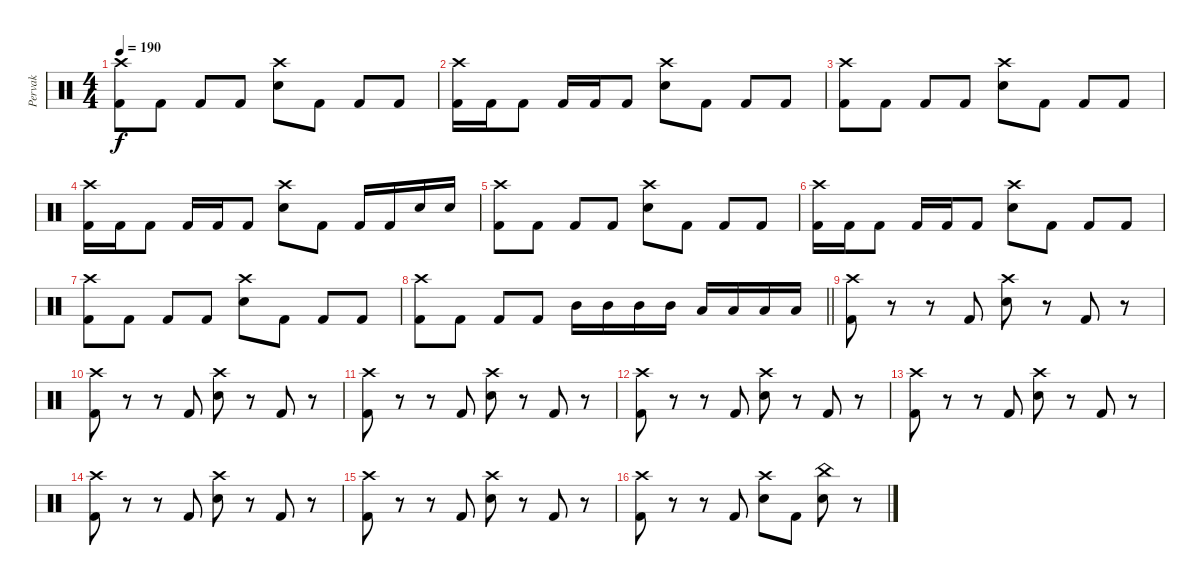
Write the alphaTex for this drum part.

\track ("Pervak" "Pervak") {instrument percussion}
\staff {score}
\articulation defaults
\ts (4 4)
\tempo 190
\clef neutral
\ks c
("Crash high (hit)" "Kick (hit) 2").8{dy f} "Kick (hit) 2".8 "Kick (hit) 2".8 "Kick (hit) 2".8 ("Crash high (hit)" "Electric Snare (hit)").8 "Kick (hit) 2".8 "Kick (hit) 2".8 "Kick (hit) 2".8 |
("Crash high (hit)" "Kick (hit) 2").16 "Kick (hit) 2".16 "Kick (hit) 2".8 "Kick (hit) 2".16 "Kick (hit) 2".16 "Kick (hit) 2".8 ("Crash high (hit)" "Electric Snare (hit)").8 "Kick (hit) 2".8 "Kick (hit) 2".8 "Kick (hit) 2".8 |
("Crash high (hit)" "Kick (hit) 2").8 "Kick (hit) 2".8 "Kick (hit) 2".8 "Kick (hit) 2".8 ("Crash high (hit)" "Electric Snare (hit)").8 "Kick (hit) 2".8 "Kick (hit) 2".8 "Kick (hit) 2".8 |
("Crash high (hit)" "Kick (hit) 2").16 "Kick (hit) 2".16 "Kick (hit) 2".8 "Kick (hit) 2".16 "Kick (hit) 2".16 "Kick (hit) 2".8 ("Crash high (hit)" "Electric Snare (hit)").8 "Kick (hit) 2".8 "Kick (hit) 2".16 "Kick (hit) 2".16 "Electric Snare (hit)".16 "Electric Snare (hit)".16 |
("Crash high (hit)" "Kick (hit) 2").8 "Kick (hit) 2".8 "Kick (hit) 2".8 "Kick (hit) 2".8 ("Crash high (hit)" "Electric Snare (hit)").8 "Kick (hit) 2".8 "Kick (hit) 2".8 "Kick (hit) 2".8 |
("Crash high (hit)" "Kick (hit) 2").16 "Kick (hit) 2".16 "Kick (hit) 2".8 "Kick (hit) 2".16 "Kick (hit) 2".16 "Kick (hit) 2".8 ("Crash high (hit)" "Electric Snare (hit)").8 "Kick (hit) 2".8 "Kick (hit) 2".8 "Kick (hit) 2".8 |
("Crash high (hit)" "Kick (hit) 2").8 "Kick (hit) 2".8 "Kick (hit) 2".8 "Kick (hit) 2".8 ("Crash high (hit)" "Electric Snare (hit)").8 "Kick (hit) 2".8 "Kick (hit) 2".8 "Kick (hit) 2".8 |
\barLineRight lightlight
("Crash high (hit)" "Kick (hit) 2").8 "Kick (hit) 2".8 "Kick (hit) 2".8 "Kick (hit) 2".8 "Mid Tom (hit)".16 "Mid Tom (hit)".16 "Mid Tom (hit)".16 "Mid Tom (hit)".16 "Low Tom (hit)".16 "Low Tom (hit)".16 "Low Tom (hit)".16 "Low Tom (hit)".16 |
("Crash high (hit)" "Kick (hit) 2").8 r.8 r.8 "Kick (hit) 2".8 ("Crash high (hit)" "Electric Snare (hit)").8 r.8 "Kick (hit) 2".8 r.8 |
("Crash high (hit)" "Kick (hit) 2").8 r.8 r.8 "Kick (hit) 2".8 ("Crash high (hit)" "Electric Snare (hit)").8 r.8 "Kick (hit) 2".8 r.8 |
("Crash high (hit)" "Kick (hit) 2").8 r.8 r.8 "Kick (hit) 2".8 ("Crash high (hit)" "Electric Snare (hit)").8 r.8 "Kick (hit) 2".8 r.8 |
("Crash high (hit)" "Kick (hit) 2").8 r.8 r.8 "Kick (hit) 2".8 ("Crash high (hit)" "Electric Snare (hit)").8 r.8 "Kick (hit) 2".8 r.8 |
("Crash high (hit)" "Kick (hit) 2").8 r.8 r.8 "Kick (hit) 2".8 ("Crash high (hit)" "Electric Snare (hit)").8 r.8 "Kick (hit) 2".8 r.8 |
("Crash high (hit)" "Kick (hit) 2").8 r.8 r.8 "Kick (hit) 2".8 ("Crash high (hit)" "Electric Snare (hit)").8 r.8 "Kick (hit) 2".8 r.8 |
("Crash high (hit)" "Kick (hit) 2").8 r.8 r.8 "Kick (hit) 2".8 ("Crash high (hit)" "Electric Snare (hit)").8 r.8 "Kick (hit) 2".8 r.8 |
("Crash high (hit)" "Kick (hit) 2").8 r.8 r.8 "Kick (hit) 2".8 ("Crash high (hit)" "Electric Snare (hit)").8 "Kick (hit) 2".8 ("China (hit)" "Electric Snare (hit)").8 r.8
